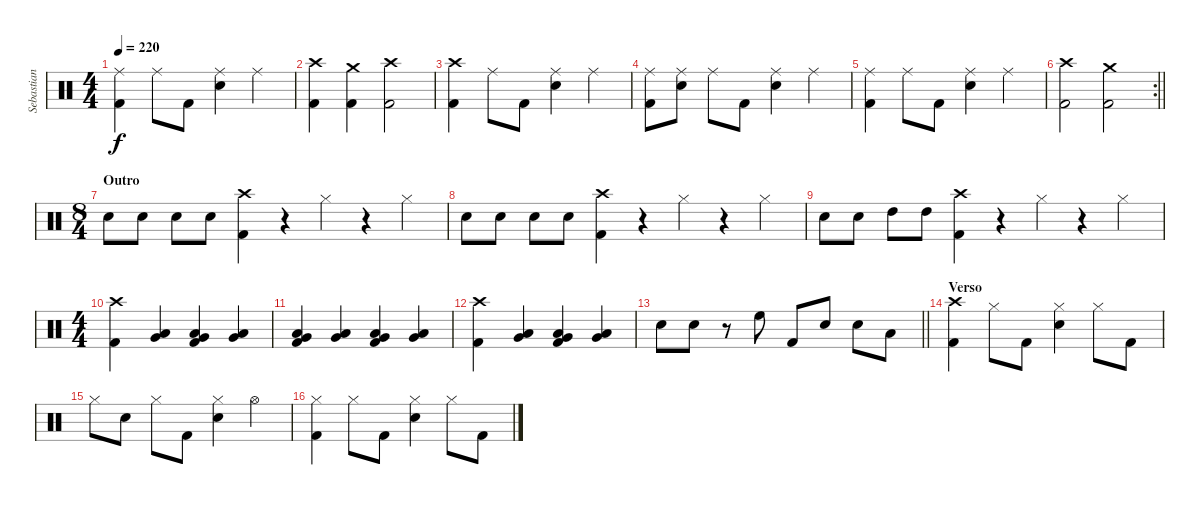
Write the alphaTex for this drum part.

\track ("Sebastian" "Sebastian") {instrument percussion}
\staff {score}
\articulation defaults
\ts (4 4)
\tempo 220
\clef neutral
\ks c
("Ride (middle)" "Kick (hit) 2").4{dy f} "Ride (middle)".8 "Kick (hit) 2".8 ("Ride (middle)" "Snare (hit) 2").4 "Ride (middle)".4 |
("Crash high (hit)" "Kick (hit) 2").4 ("Crash medium (hit)" "Kick (hit) 2").4 ("Crash high (hit)" "Kick (hit) 2").2 |
("Crash high (hit)" "Kick (hit) 2").4 "Ride (middle)".8 "Kick (hit) 2".8 ("Ride (middle)" "Snare (hit) 2").4 "Ride (middle)".4 |
("Ride (middle)" "Kick (hit) 2").8 ("Ride (middle)" "Snare (hit) 2").8 "Ride (middle)".8 "Kick (hit) 2".8 ("Ride (middle)" "Snare (hit) 2").4 "Ride (middle)".4 |
("Ride (middle)" "Kick (hit) 2").4 "Ride (middle)".8 "Kick (hit) 2".8 ("Ride (middle)" "Snare (hit) 2").4 "Ride (middle)".4 |
\rc 2
\barLineRight lightlight
("Crash high (hit)" "Kick (hit) 2").2 ("Crash medium (hit)" "Kick (hit) 2").2 |
\ts (8 4)
\section ("" "Outro")
"Snare (hit) 2".8 "Snare (hit) 2".8 "Snare (hit) 2".8 "Snare (hit) 2".8 ("Crash high (hit)" "Kick (hit) 2").4 r.4 "Hi-Hat (closed)".4 r.4 "Hi-Hat (closed)".4 |
"Snare (hit) 2".8 "Snare (hit) 2".8 "Snare (hit) 2".8 "Snare (hit) 2".8 ("Crash high (hit)" "Kick (hit) 2").4 r.4 "Hi-Hat (closed)".4 r.4 "Hi-Hat (closed)".4 |
"Snare (hit) 2".8 "Snare (hit) 2".8 "High Tom (hit)".8 "High Tom (hit)".8 ("Crash high (hit)" "Kick (hit) 2").4 r.4 "Hi-Hat (closed)".4 r.4 "Hi-Hat (closed)".4 |
\ts (4 4)
("Crash high (hit)" "Kick (hit) 2").4 ("Low Tom (hit)" "Very Low Tom (hit)").4 ("Low Tom (hit)" "Very Low Tom (hit)" "Kick (hit) 2").4 ("Low Tom (hit)" "Very Low Tom (hit)").4 |
("Low Tom (hit)" "Very Low Tom (hit)" "Kick (hit) 2").4 ("Low Tom (hit)" "Very Low Tom (hit)").4 ("Low Tom (hit)" "Very Low Tom (hit)" "Kick (hit) 2").4 ("Low Tom (hit)" "Very Low Tom (hit)").4 |
("Crash high (hit)" "Kick (hit) 2").4 ("Low Tom (hit)" "Very Low Tom (hit)").4 ("Low Tom (hit)" "Very Low Tom (hit)" "Kick (hit) 2").4 ("Low Tom (hit)" "Very Low Tom (hit)").4 |
\barLineRight lightlight "Snare (hit) 2".8 "Snare (hit) 2".8
r.8 "High Floor Tom (hit)".8 "Kick (hit) 2".8 "Snare (hit) 2".8 "Snare (hit) 2".8 "Low Tom (hit)".8 |
\section ("" "Verso")
("Crash high (hit)" "Kick (hit) 2").4 "Hi-Hat (closed)".8 "Kick (hit) 2".8 ("Hi-Hat (closed)" "Snare (hit) 2").4 "Hi-Hat (closed)".8 "Kick (hit) 2".8 |
"Hi-Hat (closed)".8 "Snare (hit) 2".8 "Hi-Hat (closed)".8 "Kick (hit) 2".8 ("Hi-Hat (closed)" "Snare (hit) 2").4 "Hi-Hat (open)".4 |
("Hi-Hat (closed)" "Kick (hit) 2").4 "Hi-Hat (closed)".8 "Kick (hit) 2".8 ("Hi-Hat (closed)" "Snare (hit) 2").4 "Hi-Hat (closed)".8 "Kick (hit) 2".8
